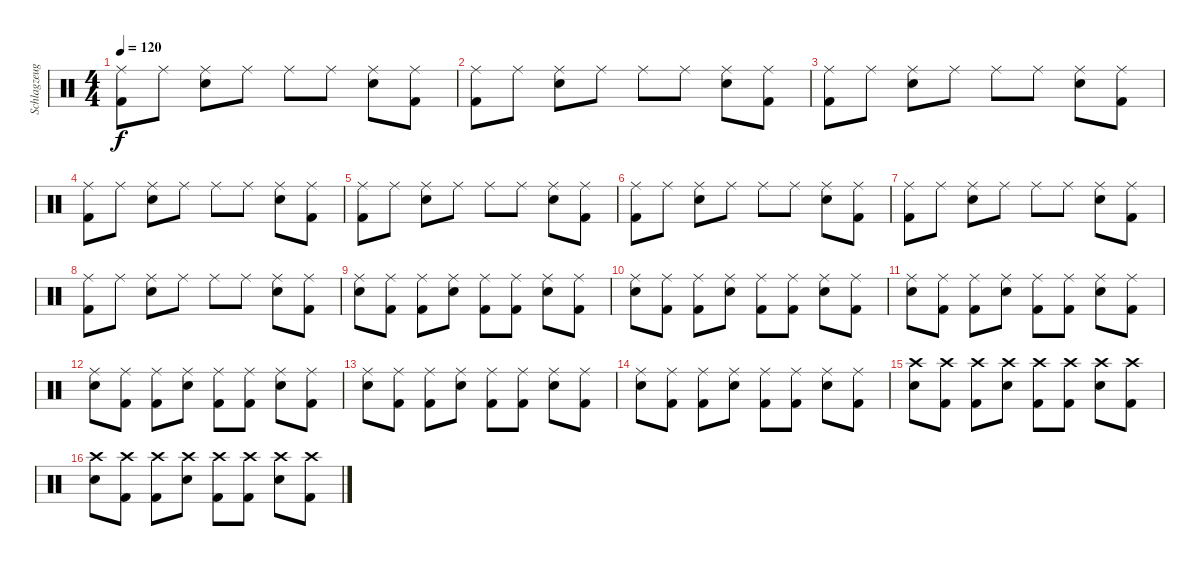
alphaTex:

\track ("Schlagzeug" "Schlagzeug") {instrument percussion}
\staff {score}
\articulation defaults
\ts (4 4)
\tempo 120
\clef neutral
\ks c
("Kick (hit) 2" "Ride (middle)").8{dy f} "Ride (middle)".8 ("Ride (middle)" "Snare (hit) 2").8 "Ride (middle)".8 "Ride (middle)".8 "Ride (middle)".8 ("Snare (hit) 2" "Ride (middle)").8 ("Ride (middle)" "Kick (hit) 2").8 |
("Kick (hit) 2" "Ride (middle)").8 "Ride (middle)".8 ("Ride (middle)" "Snare (hit) 2").8 "Ride (middle)".8 "Ride (middle)".8 "Ride (middle)".8 ("Snare (hit) 2" "Ride (middle)").8 ("Ride (middle)" "Kick (hit) 2").8 |
("Kick (hit) 2" "Ride (middle)").8 "Ride (middle)".8 ("Ride (middle)" "Snare (hit) 2").8 "Ride (middle)".8 "Ride (middle)".8 "Ride (middle)".8 ("Snare (hit) 2" "Ride (middle)").8 ("Ride (middle)" "Kick (hit) 2").8 |
("Kick (hit) 2" "Ride (middle)").8 "Ride (middle)".8 ("Ride (middle)" "Snare (hit) 2").8 "Ride (middle)".8 "Ride (middle)".8 "Ride (middle)".8 ("Snare (hit) 2" "Ride (middle)").8 ("Ride (middle)" "Kick (hit) 2").8 |
("Kick (hit) 2" "Ride (middle)").8 "Ride (middle)".8 ("Ride (middle)" "Snare (hit) 2").8 "Ride (middle)".8 "Ride (middle)".8 "Ride (middle)".8 ("Snare (hit) 2" "Ride (middle)").8 ("Ride (middle)" "Kick (hit) 2").8 |
("Kick (hit) 2" "Ride (middle)").8 "Ride (middle)".8 ("Ride (middle)" "Snare (hit) 2").8 "Ride (middle)".8 "Ride (middle)".8 "Ride (middle)".8 ("Snare (hit) 2" "Ride (middle)").8 ("Ride (middle)" "Kick (hit) 2").8 |
("Kick (hit) 2" "Ride (middle)").8 "Ride (middle)".8 ("Ride (middle)" "Snare (hit) 2").8 "Ride (middle)".8 "Ride (middle)".8 "Ride (middle)".8 ("Snare (hit) 2" "Ride (middle)").8 ("Ride (middle)" "Kick (hit) 2").8 |
("Kick (hit) 2" "Ride (middle)").8 "Ride (middle)".8 ("Ride (middle)" "Snare (hit) 2").8 "Ride (middle)".8 "Ride (middle)".8 "Ride (middle)".8 ("Snare (hit) 2" "Ride (middle)").8 ("Ride (middle)" "Kick (hit) 2").8 |
("Snare (hit) 2" "Ride (middle)").8 ("Kick (hit) 2" "Ride (middle)").8 ("Ride (middle)" "Kick (hit) 2").8 ("Snare (hit) 2" "Ride (middle)").8 ("Kick (hit) 2" "Ride (middle)").8 ("Kick (hit) 2" "Ride (middle)").8 ("Snare (hit) 2" "Ride (middle)").8 ("Ride (middle)" "Kick (hit) 2").8 |
("Snare (hit) 2" "Ride (middle)").8 ("Kick (hit) 2" "Ride (middle)").8 ("Ride (middle)" "Kick (hit) 2").8 ("Snare (hit) 2" "Ride (middle)").8 ("Kick (hit) 2" "Ride (middle)").8 ("Kick (hit) 2" "Ride (middle)").8 ("Snare (hit) 2" "Ride (middle)").8 ("Ride (middle)" "Kick (hit) 2").8 |
("Snare (hit) 2" "Ride (middle)").8 ("Kick (hit) 2" "Ride (middle)").8 ("Ride (middle)" "Kick (hit) 2").8 ("Snare (hit) 2" "Ride (middle)").8 ("Kick (hit) 2" "Ride (middle)").8 ("Kick (hit) 2" "Ride (middle)").8 ("Snare (hit) 2" "Ride (middle)").8 ("Ride (middle)" "Kick (hit) 2").8 |
("Snare (hit) 2" "Ride (middle)").8 ("Kick (hit) 2" "Ride (middle)").8 ("Ride (middle)" "Kick (hit) 2").8 ("Snare (hit) 2" "Ride (middle)").8 ("Kick (hit) 2" "Ride (middle)").8 ("Kick (hit) 2" "Ride (middle)").8 ("Snare (hit) 2" "Ride (middle)").8 ("Ride (middle)" "Kick (hit) 2").8 |
("Snare (hit) 2" "Ride (middle)").8 ("Kick (hit) 2" "Ride (middle)").8 ("Ride (middle)" "Kick (hit) 2").8 ("Snare (hit) 2" "Ride (middle)").8 ("Kick (hit) 2" "Ride (middle)").8 ("Kick (hit) 2" "Ride (middle)").8 ("Snare (hit) 2" "Ride (middle)").8 ("Ride (middle)" "Kick (hit) 2").8 |
("Snare (hit) 2" "Ride (middle)").8 ("Kick (hit) 2" "Ride (middle)").8 ("Ride (middle)" "Kick (hit) 2").8 ("Snare (hit) 2" "Ride (middle)").8 ("Kick (hit) 2" "Ride (middle)").8 ("Kick (hit) 2" "Ride (middle)").8 ("Snare (hit) 2" "Ride (middle)").8 ("Ride (middle)" "Kick (hit) 2").8 |
("Snare (hit) 2" "Crash high (hit)").8 ("Kick (hit) 2" "Crash high (hit)").8 ("Crash high (hit)" "Kick (hit) 2").8 ("Snare (hit) 2" "Crash high (hit)").8 ("Kick (hit) 2" "Crash high (hit)").8 ("Kick (hit) 2" "Crash high (hit)").8 ("Snare (hit) 2" "Crash high (hit)").8 ("Crash high (hit)" "Kick (hit) 2").8 |
("Snare (hit) 2" "Crash high (hit)").8 ("Kick (hit) 2" "Crash high (hit)").8 ("Crash high (hit)" "Kick (hit) 2").8 ("Snare (hit) 2" "Crash high (hit)").8 ("Kick (hit) 2" "Crash high (hit)").8 ("Kick (hit) 2" "Crash high (hit)").8 ("Snare (hit) 2" "Crash high (hit)").8 ("Crash high (hit)" "Kick (hit) 2").8
